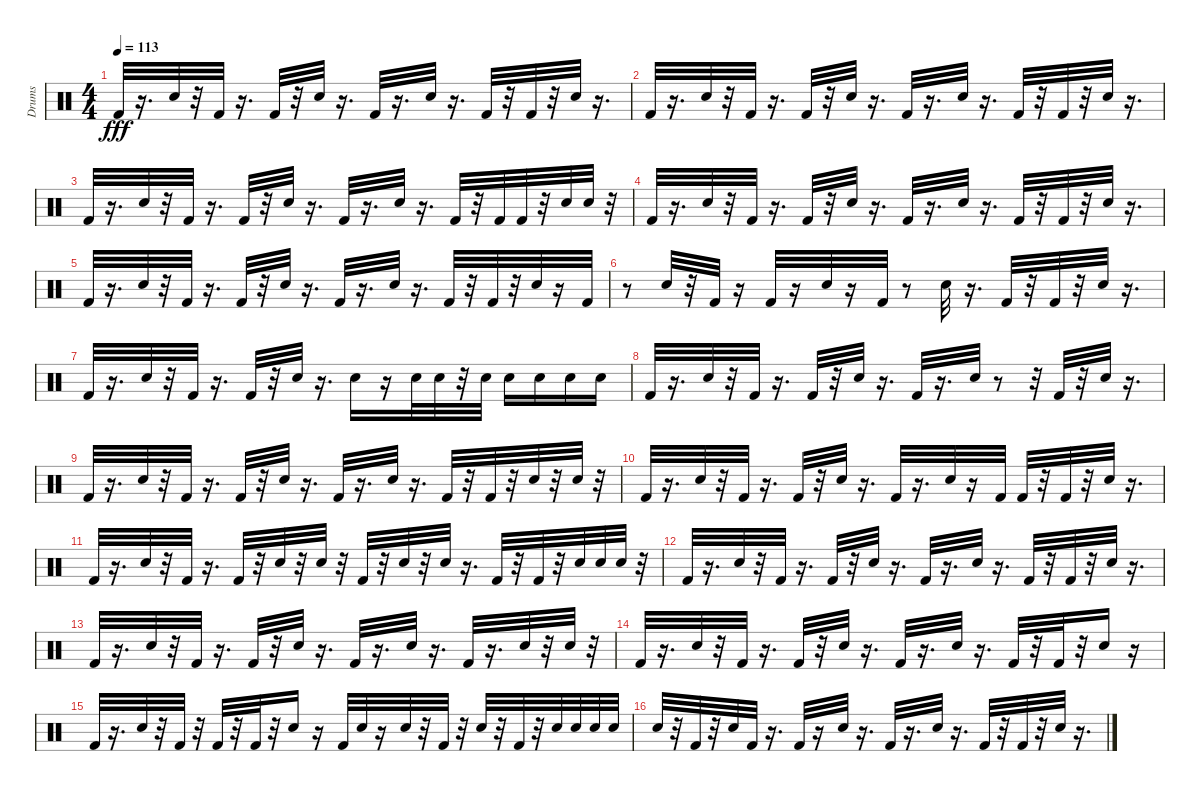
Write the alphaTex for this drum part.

\track ("Drums" "Drums") {instrument percussion}
\staff {score}
\articulation defaults
\ts (4 4)
\tempo 113
\clef neutral
\ks c "Kick (hit) 2".32{dy fff}
r.16{d} "Electric Snare (hit)".32 r.32 "Kick (hit) 2".32 r.16{d} "Kick (hit) 2".32 r.32 "Electric Snare (hit)".32 r.16{d} "Kick (hit) 2".32 r.16{d} "Electric Snare (hit)".32 r.16{d} "Kick (hit) 2".32 r.32 "Kick (hit) 2".32 r.32 "Electric Snare (hit)".32 r.16{d} |
"Kick (hit) 2".32 r.16{d} "Electric Snare (hit)".32 r.32 "Kick (hit) 2".32 r.16{d} "Kick (hit) 2".32 r.32 "Electric Snare (hit)".32 r.16{d} "Kick (hit) 2".32 r.16{d} "Electric Snare (hit)".32 r.16{d} "Kick (hit) 2".32 r.32 "Kick (hit) 2".32 r.32 "Electric Snare (hit)".32 r.16{d} |
"Kick (hit) 2".32 r.16{d} "Electric Snare (hit)".32 r.32 "Kick (hit) 2".32 r.16{d} "Kick (hit) 2".32 r.32 "Electric Snare (hit)".32 r.16{d} "Kick (hit) 2".32 r.16{d} "Electric Snare (hit)".32 r.16{d} "Kick (hit) 2".32 r.32 "Kick (hit) 2".32 "Kick (hit) 2".32 r.32 "Electric Snare (hit)".32 "Electric Snare (hit)".32 r.32 |
"Kick (hit) 2".32 r.16{d} "Electric Snare (hit)".32 r.32 "Kick (hit) 2".32 r.16{d} "Kick (hit) 2".32 r.32 "Electric Snare (hit)".32 r.16{d} "Kick (hit) 2".32 r.16{d} "Electric Snare (hit)".32 r.16{d} "Kick (hit) 2".32 r.32 "Kick (hit) 2".32 r.32 "Electric Snare (hit)".32 r.16{d} |
"Kick (hit) 2".32 r.16{d} "Electric Snare (hit)".32 r.32 "Kick (hit) 2".32 r.16{d} "Kick (hit) 2".32 r.32 "Electric Snare (hit)".32 r.16{d} "Kick (hit) 2".32 r.16{d} "Electric Snare (hit)".32 r.16{d} "Kick (hit) 2".32 r.32 "Kick (hit) 2".32 r.32 "Electric Snare (hit)".32 r.16 "Kick (hit) 2".32 |
r.8 "Electric Snare (hit)".32 r.32 "Kick (hit) 2".32 r.16 "Kick (hit) 2".32 r.16 "Electric Snare (hit)".32 r.16 "Kick (hit) 2".32 r.8 "Electric Snare (hit)".32 r.16{d} "Kick (hit) 2".32 r.32 "Kick (hit) 2".32 r.32 "Electric Snare (hit)".32 r.16{d} |
"Kick (hit) 2".32 r.16{d} "Electric Snare (hit)".32 r.32 "Kick (hit) 2".32 r.16{d} "Kick (hit) 2".32 r.32 "Electric Snare (hit)".32 r.16{d} "Electric Snare (hit)".16 r.16 "Electric Snare (hit)".32 "Electric Snare (hit)".32 r.32 "Electric Snare (hit)".32 "Electric Snare (hit)".16 "Electric Snare (hit)".16 "Electric Snare (hit)".16 "Electric Snare (hit)".16 |
"Kick (hit) 2".32 r.16{d} "Electric Snare (hit)".32 r.32 "Kick (hit) 2".32 r.16{d} "Kick (hit) 2".32 r.32 "Electric Snare (hit)".32 r.16{d} "Kick (hit) 2".32 r.16{d} "Electric Snare (hit)".32 r.8 r.32 "Kick (hit) 2".32 r.32 "Electric Snare (hit)".32 r.16{d} |
"Kick (hit) 2".32 r.16{d} "Electric Snare (hit)".32 r.32 "Kick (hit) 2".32 r.16{d} "Kick (hit) 2".32 r.32 "Electric Snare (hit)".32 r.16{d} "Kick (hit) 2".32 r.16{d} "Electric Snare (hit)".32 r.16{d} "Kick (hit) 2".32 r.32 "Kick (hit) 2".32 r.32 "Electric Snare (hit)".32 r.32 "Electric Snare (hit)".32 r.32 |
"Kick (hit) 2".32 r.16{d} "Electric Snare (hit)".32 r.32 "Kick (hit) 2".32 r.16{d} "Kick (hit) 2".32 r.32 "Electric Snare (hit)".32 r.16{d} "Kick (hit) 2".32 r.16{d} "Electric Snare (hit)".32 r.16 "Kick (hit) 2".32 "Kick (hit) 2".32 r.32 "Kick (hit) 2".32 r.32 "Electric Snare (hit)".32 r.16{d} |
"Kick (hit) 2".32 r.16{d} "Electric Snare (hit)".32 r.32 "Kick (hit) 2".32 r.16{d} "Kick (hit) 2".32 r.32 "Electric Snare (hit)".32 r.32 "Electric Snare (hit)".32 r.32 "Kick (hit) 2".32 r.32 "Electric Snare (hit)".32 r.32 "Electric Snare (hit)".32 r.16{d} "Kick (hit) 2".32 r.32 "Kick (hit) 2".32 r.32 "Electric Snare (hit)".32 "Electric Snare (hit)".32 "Electric Snare (hit)".32 r.32 |
"Kick (hit) 2".32 r.16{d} "Electric Snare (hit)".32 r.32 "Kick (hit) 2".32 r.16{d} "Kick (hit) 2".32 r.32 "Electric Snare (hit)".32 r.16{d} "Kick (hit) 2".32 r.16{d} "Electric Snare (hit)".32 r.16{d} "Kick (hit) 2".32 r.32 "Kick (hit) 2".32 r.32 "Electric Snare (hit)".32 r.16{d} |
"Kick (hit) 2".32 r.16{d} "Electric Snare (hit)".32 r.32 "Kick (hit) 2".32 r.16{d} "Kick (hit) 2".32 r.32 "Electric Snare (hit)".32 r.16{d} "Kick (hit) 2".32 r.16{d} "Electric Snare (hit)".32 r.16{d} "Kick (hit) 2".32 r.16{d} "Electric Snare (hit)".32 r.32 "Electric Snare (hit)".32 r.32 |
"Kick (hit) 2".32 r.16{d} "Electric Snare (hit)".32 r.32 "Kick (hit) 2".32 r.16{d} "Kick (hit) 2".32 r.32 "Electric Snare (hit)".32 r.16{d} "Kick (hit) 2".32 r.16{d} "Electric Snare (hit)".32 r.16{d} "Kick (hit) 2".32 r.32 "Kick (hit) 2".32 r.32 "Electric Snare (hit)".16 r.16 |
"Kick (hit) 2".32 r.16{d} "Electric Snare (hit)".32 r.32 "Kick (hit) 2".32 r.32 "Kick (hit) 2".32 r.32 "Kick (hit) 2".32 r.32 "Electric Snare (hit)".16 r.16 "Kick (hit) 2".32 "Electric Snare (hit)".32 r.16 "Electric Snare (hit)".32 r.32 "Kick (hit) 2".32 r.32 "Electric Snare (hit)".32 r.32 "Kick (hit) 2".32 r.32 "Electric Snare (hit)".32 "Electric Snare (hit)".32 "Electric Snare (hit)".32 "Electric Snare (hit)".32 |
"Electric Snare (hit)".32 r.32 "Kick (hit) 2".32 r.32 "Electric Snare (hit)".32 "Kick (hit) 2".32 r.16{d} "Kick (hit) 2".32 r.16 "Electric Snare (hit)".32 r.16{d} "Kick (hit) 2".32 r.16{d} "Electric Snare (hit)".32 r.16{d} "Kick (hit) 2".32 r.32 "Kick (hit) 2".32 r.32 "Electric Snare (hit)".32 r.16{d}
